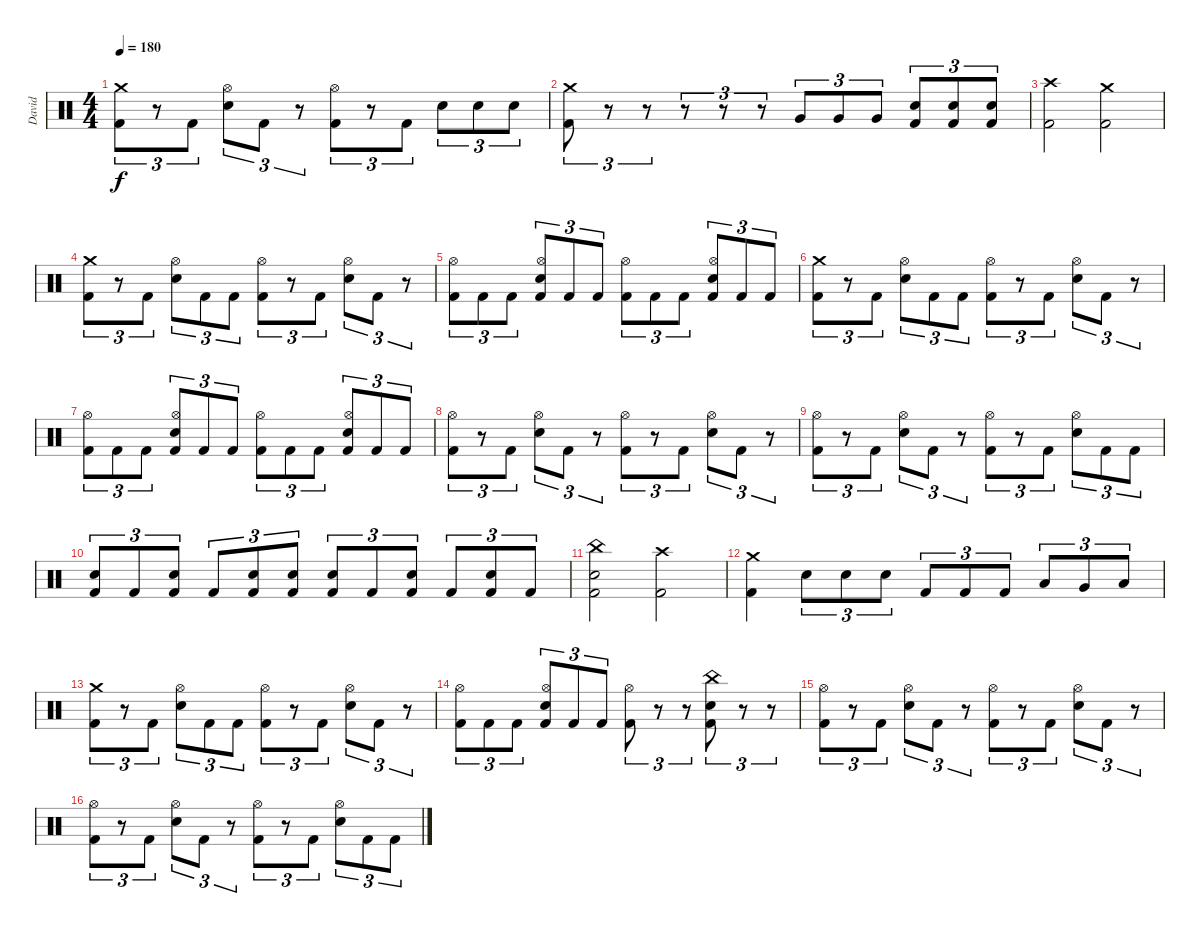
\track ("David" "David") {instrument percussion}
\staff {score}
\articulation defaults
\ts (4 4)
\tempo 180
\clef neutral
\ks c
("Crash medium (hit)" "Kick (hit) 2").8{tu (3 2) dy f} r.8{tu (3 2)} "Kick (hit) 2".8{tu (3 2)} ("Hi-Hat (open)" "Electric Snare (hit)").8{tu (3 2)} "Kick (hit) 2".8{tu (3 2)} r.8{tu (3 2)} ("Hi-Hat (open)" "Kick (hit) 2").8{tu (3 2)} r.8{tu (3 2)} "Kick (hit) 2".8{tu (3 2)} "Electric Snare (hit)".8{tu (3 2)} "Electric Snare (hit)".8{tu (3 2)} "Electric Snare (hit)".8{tu (3 2)} |
("Crash medium (hit)" "Kick (hit) 2").8{tu (3 2)} r.8{tu (3 2)} r.8{tu (3 2)} r.8{tu (3 2)} r.8{tu (3 2)} r.8{tu (3 2)} "Very Low Tom (hit)".8{tu (3 2)} "Very Low Tom (hit)".8{tu (3 2)} "Very Low Tom (hit)".8{tu (3 2)} ("Electric Snare (hit)" "Kick (hit) 2").8{tu (3 2)} ("Electric Snare (hit)" "Kick (hit) 2").8{tu (3 2)} ("Electric Snare (hit)" "Kick (hit) 2").8{tu (3 2)} |
("Crash high (hit)" "Kick (hit) 2").2 ("Crash medium (hit)" "Kick (hit) 2").2 |
("Crash medium (hit)" "Kick (hit) 2").8{tu (3 2)} r.8{tu (3 2)} "Kick (hit) 2".8{tu (3 2)} ("Hi-Hat (open)" "Electric Snare (hit)").8{tu (3 2)} "Kick (hit) 2".8{tu (3 2)} "Kick (hit) 2".8{tu (3 2)} ("Hi-Hat (open)" "Kick (hit) 2").8{tu (3 2)} r.8{tu (3 2)} "Kick (hit) 2".8{tu (3 2)} ("Hi-Hat (open)" "Electric Snare (hit)").8{tu (3 2)} "Kick (hit) 2".8{tu (3 2)} r.8{tu (3 2)} |
("Hi-Hat (open)" "Kick (hit) 2").8{tu (3 2)} "Kick (hit) 2".8{tu (3 2)} "Kick (hit) 2".8{tu (3 2)} ("Hi-Hat (open)" "Electric Snare (hit)" "Kick (hit) 2").8{tu (3 2)} "Kick (hit) 2".8{tu (3 2)} "Kick (hit) 2".8{tu (3 2)} ("Hi-Hat (open)" "Kick (hit) 2").8{tu (3 2)} "Kick (hit) 2".8{tu (3 2)} "Kick (hit) 2".8{tu (3 2)} ("Hi-Hat (open)" "Electric Snare (hit)" "Kick (hit) 2").8{tu (3 2)} "Kick (hit) 2".8{tu (3 2)} "Kick (hit) 2".8{tu (3 2)} |
("Crash medium (hit)" "Kick (hit) 2").8{tu (3 2)} r.8{tu (3 2)} "Kick (hit) 2".8{tu (3 2)} ("Hi-Hat (open)" "Electric Snare (hit)").8{tu (3 2)} "Kick (hit) 2".8{tu (3 2)} "Kick (hit) 2".8{tu (3 2)} ("Hi-Hat (open)" "Kick (hit) 2").8{tu (3 2)} r.8{tu (3 2)} "Kick (hit) 2".8{tu (3 2)} ("Hi-Hat (open)" "Electric Snare (hit)").8{tu (3 2)} "Kick (hit) 2".8{tu (3 2)} r.8{tu (3 2)} |
("Hi-Hat (open)" "Kick (hit) 2").8{tu (3 2)} "Kick (hit) 2".8{tu (3 2)} "Kick (hit) 2".8{tu (3 2)} ("Hi-Hat (open)" "Electric Snare (hit)" "Kick (hit) 2").8{tu (3 2)} "Kick (hit) 2".8{tu (3 2)} "Kick (hit) 2".8{tu (3 2)} ("Hi-Hat (open)" "Kick (hit) 2").8{tu (3 2)} "Kick (hit) 2".8{tu (3 2)} "Kick (hit) 2".8{tu (3 2)} ("Hi-Hat (open)" "Electric Snare (hit)" "Kick (hit) 2").8{tu (3 2)} "Kick (hit) 2".8{tu (3 2)} "Kick (hit) 2".8{tu (3 2)} |
("Hi-Hat (open)" "Kick (hit) 2").8{tu (3 2)} r.8{tu (3 2)} "Kick (hit) 2".8{tu (3 2)} ("Hi-Hat (open)" "Electric Snare (hit)").8{tu (3 2)} "Kick (hit) 2".8{tu (3 2)} r.8{tu (3 2)} ("Hi-Hat (open)" "Kick (hit) 2").8{tu (3 2)} r.8{tu (3 2)} "Kick (hit) 2".8{tu (3 2)} ("Hi-Hat (open)" "Electric Snare (hit)").8{tu (3 2)} "Kick (hit) 2".8{tu (3 2)} r.8{tu (3 2)} |
("Hi-Hat (open)" "Kick (hit) 2").8{tu (3 2)} r.8{tu (3 2)} "Kick (hit) 2".8{tu (3 2)} ("Hi-Hat (open)" "Electric Snare (hit)").8{tu (3 2)} "Kick (hit) 2".8{tu (3 2)} r.8{tu (3 2)} ("Hi-Hat (open)" "Kick (hit) 2").8{tu (3 2)} r.8{tu (3 2)} "Kick (hit) 2".8{tu (3 2)} ("Hi-Hat (open)" "Electric Snare (hit)").8{tu (3 2)} "Kick (hit) 2".8{tu (3 2)} "Kick (hit) 2".8{tu (3 2)} |
("Electric Snare (hit)" "Kick (hit) 2").8{tu (3 2)} "Kick (hit) 2".8{tu (3 2)} ("Electric Snare (hit)" "Kick (hit) 2").8{tu (3 2)} "Kick (hit) 2".8{tu (3 2)} ("Electric Snare (hit)" "Kick (hit) 2").8{tu (3 2)} ("Electric Snare (hit)" "Kick (hit) 2").8{tu (3 2)} ("Electric Snare (hit)" "Kick (hit) 2").8{tu (3 2)} "Kick (hit) 2".8{tu (3 2)} ("Electric Snare (hit)" "Kick (hit) 2").8{tu (3 2)} "Kick (hit) 2".8{tu (3 2)} ("Electric Snare (hit)" "Kick (hit) 2").8{tu (3 2)} "Kick (hit) 2".8{tu (3 2)} |
("China (hit)" "Electric Snare (hit)" "Kick (hit) 2").2 ("Crash high (hit)" "Kick (hit) 2").2 |
("Crash medium (hit)" "Kick (hit) 2").4 "Electric Snare (hit)".8{tu (3 2)} "Electric Snare (hit)".8{tu (3 2)} "Electric Snare (hit)".8{tu (3 2)} "Kick (hit) 2".8{tu (3 2)} "Kick (hit) 2".8{tu (3 2)} "Kick (hit) 2".8{tu (3 2)} "Low Tom (hit)".8{tu (3 2)} "Very Low Tom (hit)".8{tu (3 2)} "Low Floor Tom (hit)".8{tu (3 2)} |
("Crash medium (hit)" "Kick (hit) 2").8{tu (3 2)} r.8{tu (3 2)} "Kick (hit) 2".8{tu (3 2)} ("Hi-Hat (open)" "Electric Snare (hit)").8{tu (3 2)} "Kick (hit) 2".8{tu (3 2)} "Kick (hit) 2".8{tu (3 2)} ("Hi-Hat (open)" "Kick (hit) 2").8{tu (3 2)} r.8{tu (3 2)} "Kick (hit) 2".8{tu (3 2)} ("Hi-Hat (open)" "Electric Snare (hit)").8{tu (3 2)} "Kick (hit) 2".8{tu (3 2)} r.8{tu (3 2)} |
("Hi-Hat (open)" "Kick (hit) 2").8{tu (3 2)} "Kick (hit) 2".8{tu (3 2)} "Kick (hit) 2".8{tu (3 2)} ("Hi-Hat (open)" "Electric Snare (hit)" "Kick (hit) 2").8{tu (3 2)} "Kick (hit) 2".8{tu (3 2)} "Kick (hit) 2".8{tu (3 2)} ("Hi-Hat (open)" "Kick (hit) 2").8{tu (3 2)} r.8{tu (3 2)} r.8{tu (3 2)} ("China (hit)" "Electric Snare (hit)" "Kick (hit) 2").8{tu (3 2)} r.8{tu (3 2)} r.8{tu (3 2)} |
("Hi-Hat (open)" "Kick (hit) 2").8{tu (3 2)} r.8{tu (3 2)} "Kick (hit) 2".8{tu (3 2)} ("Hi-Hat (open)" "Electric Snare (hit)").8{tu (3 2)} "Kick (hit) 2".8{tu (3 2)} r.8{tu (3 2)} ("Hi-Hat (open)" "Kick (hit) 2").8{tu (3 2)} r.8{tu (3 2)} "Kick (hit) 2".8{tu (3 2)} ("Hi-Hat (open)" "Electric Snare (hit)").8{tu (3 2)} "Kick (hit) 2".8{tu (3 2)} r.8{tu (3 2)} |
("Hi-Hat (open)" "Kick (hit) 2").8{tu (3 2)} r.8{tu (3 2)} "Kick (hit) 2".8{tu (3 2)} ("Hi-Hat (open)" "Electric Snare (hit)").8{tu (3 2)} "Kick (hit) 2".8{tu (3 2)} r.8{tu (3 2)} ("Hi-Hat (open)" "Kick (hit) 2").8{tu (3 2)} r.8{tu (3 2)} "Kick (hit) 2".8{tu (3 2)} ("Hi-Hat (open)" "Electric Snare (hit)").8{tu (3 2)} "Kick (hit) 2".8{tu (3 2)} "Kick (hit) 2".8{tu (3 2)}
